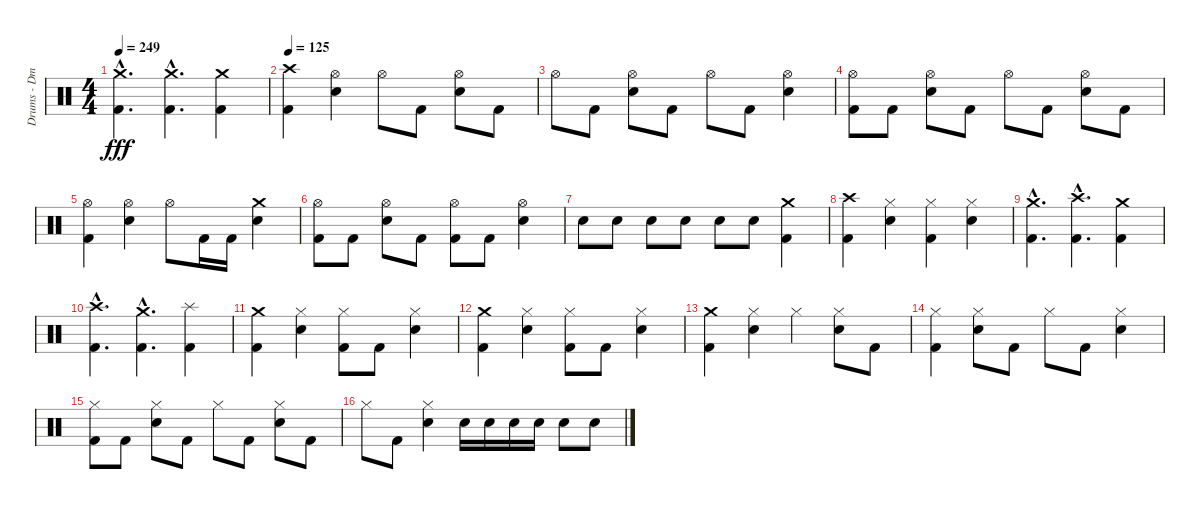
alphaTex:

\track ("Drums - Dmitriy Krivenkov" "Drums - Dm") {instrument percussion}
\staff {score}
\articulation defaults
\ts (4 4)
\tempo 249
\clef neutral
\ks c
("Kick (hit) 2"{hac} "Crash medium (hit)"{hac}).4{d dy fff} ("Kick (hit) 2"{hac} "Crash medium (hit)"{hac}).4{d} ("Kick (hit) 2" "Crash medium (hit)").4 |
\tempo 125
("Kick (hit) 2" "Crash high (hit)").4 ("Electric Snare (hit)" "Hi-Hat (open)").4 "Hi-Hat (open)".8 "Kick (hit) 2".8 ("Electric Snare (hit)" "Hi-Hat (open)").8 "Kick (hit) 2".8 |
"Hi-Hat (open)".8 "Kick (hit) 2".8 ("Electric Snare (hit)" "Hi-Hat (open)").8 "Kick (hit) 2".8 "Hi-Hat (open)".8 "Kick (hit) 2".8 ("Electric Snare (hit)" "Hi-Hat (open)").4 |
("Kick (hit) 2" "Hi-Hat (open)").8 "Kick (hit) 2".8 ("Electric Snare (hit)" "Hi-Hat (open)").8 "Kick (hit) 2".8 "Hi-Hat (open)".8 "Kick (hit) 2".8 ("Electric Snare (hit)" "Hi-Hat (open)").8 "Kick (hit) 2".8 |
("Kick (hit) 2" "Hi-Hat (open)").4 ("Electric Snare (hit)" "Hi-Hat (open)").4 "Hi-Hat (open)".8 "Kick (hit) 2".16 "Kick (hit) 2".16 ("Electric Snare (hit)" "Crash medium (hit)").4 |
("Kick (hit) 2" "Hi-Hat (open)").8 "Kick (hit) 2".8 ("Electric Snare (hit)" "Hi-Hat (open)").8 "Kick (hit) 2".8 ("Kick (hit) 2" "Hi-Hat (open)").8 "Kick (hit) 2".8 ("Electric Snare (hit)" "Hi-Hat (open)").4 |
"Electric Snare (hit)".8 "Electric Snare (hit)".8 "Electric Snare (hit)".8 "Electric Snare (hit)".8 "Electric Snare (hit)".8 "Electric Snare (hit)".8 ("Kick (hit) 2" "Crash medium (hit)").4 |
("Kick (hit) 2" "Crash high (hit)").4 ("Electric Snare (hit)" "Hi-Hat (closed)").4 ("Kick (hit) 2" "Hi-Hat (closed)").4 ("Electric Snare (hit)" "Hi-Hat (closed)").4 |
("Kick (hit) 2"{hac} "Crash medium (hit)"{hac}).4{d} ("Kick (hit) 2"{hac} "Crash high (hit)"{hac}).4{d} ("Kick (hit) 2" "Crash medium (hit)").4 |
("Kick (hit) 2"{hac} "Crash high (hit)"{hac}).4{d} ("Kick (hit) 2"{hac} "Crash medium (hit)"{hac}).4{d} ("Kick (hit) 2" "Splash (hit)").4 |
("Kick (hit) 2" "Crash medium (hit)").4 ("Electric Snare (hit)" "Hi-Hat (closed)").4 ("Kick (hit) 2" "Hi-Hat (closed)").8 "Kick (hit) 2".8 ("Electric Snare (hit)" "Hi-Hat (closed)").4 |
("Kick (hit) 2" "Crash medium (hit)").4 ("Electric Snare (hit)" "Hi-Hat (closed)").4 ("Kick (hit) 2" "Hi-Hat (closed)").8 "Kick (hit) 2".8 ("Electric Snare (hit)" "Hi-Hat (closed)").4 |
("Kick (hit) 2" "Crash medium (hit)").4 ("Electric Snare (hit)" "Hi-Hat (closed)").4 "Hi-Hat (closed)".4 ("Electric Snare (hit)" "Hi-Hat (closed)").8 "Kick (hit) 2".8 |
("Kick (hit) 2" "Hi-Hat (closed)").4 ("Electric Snare (hit)" "Hi-Hat (closed)").8 "Kick (hit) 2".8 "Hi-Hat (closed)".8 "Kick (hit) 2".8 ("Electric Snare (hit)" "Hi-Hat (closed)").4 |
("Kick (hit) 2" "Hi-Hat (closed)").8 "Kick (hit) 2".8 ("Electric Snare (hit)" "Hi-Hat (closed)").8 "Kick (hit) 2".8 "Hi-Hat (closed)".8 "Kick (hit) 2".8 ("Electric Snare (hit)" "Hi-Hat (closed)").8 "Kick (hit) 2".8 |
"Hi-Hat (closed)".8 "Kick (hit) 2".8 ("Electric Snare (hit)" "Hi-Hat (closed)").4 "Electric Snare (hit)".16 "Electric Snare (hit)".16 "Electric Snare (hit)".16 "Electric Snare (hit)".16 "Electric Snare (hit)".8 "Electric Snare (hit)".8
